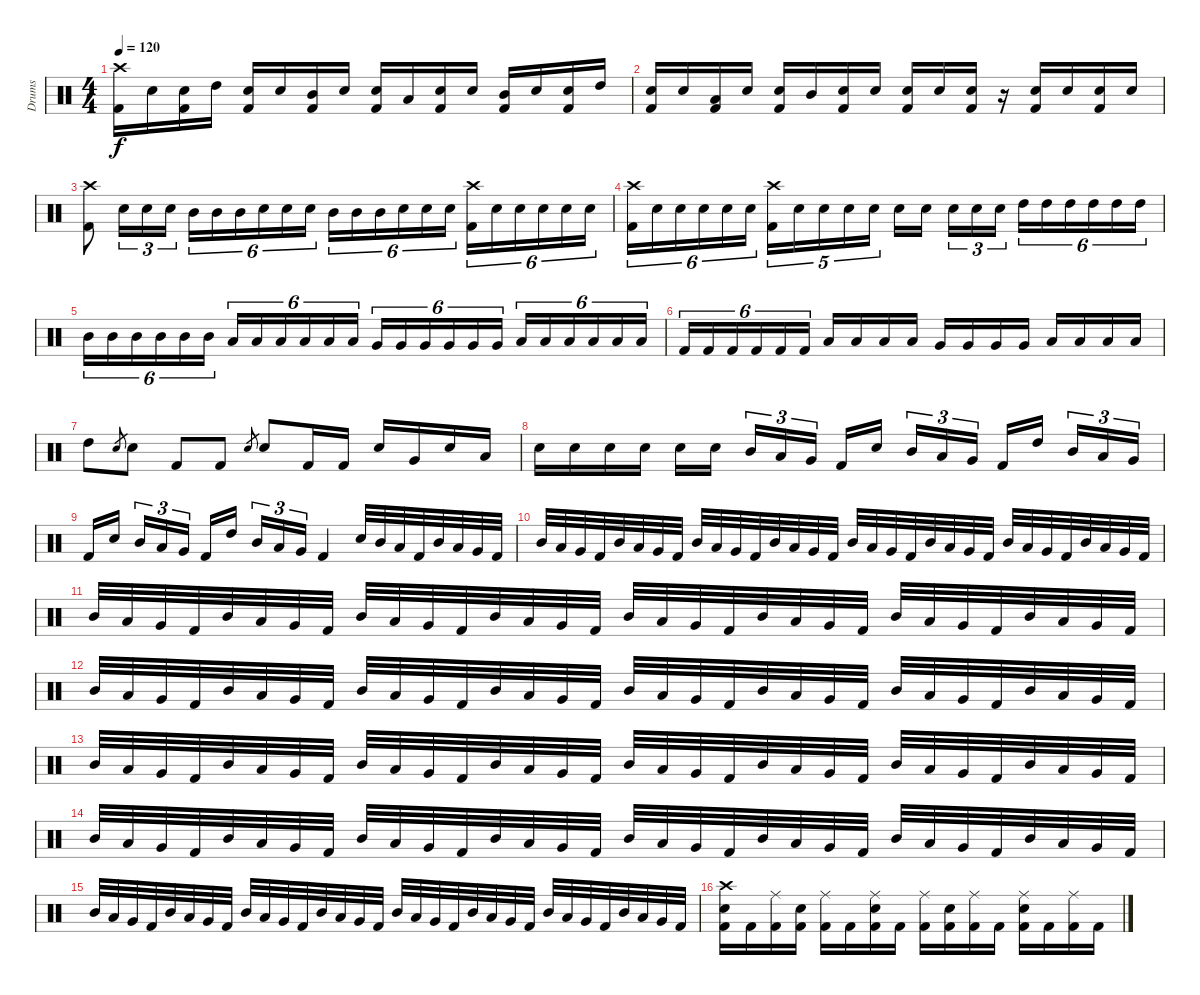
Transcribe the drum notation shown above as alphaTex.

\track ("Drums" "Drums") {instrument percussion}
\staff {score}
\articulation defaults
\ts (4 4)
\tempo 120
\clef neutral
\ks c
("Crash high (hit)" "Kick (hit) 2").16{dy f} "Electric Snare (hit)".16 ("Electric Snare (hit)" "Kick (hit) 2").16 "High Tom (hit)".16 ("Electric Snare (hit)" "Kick (hit) 2").16 "Electric Snare (hit)".16 ("Mid Tom (hit)" "Kick (hit) 2").16 "Electric Snare (hit)".16 ("Electric Snare (hit)" "Kick (hit) 2").16 "Low Tom (hit)".16 ("Electric Snare (hit)" "Kick (hit) 2").16 "Electric Snare (hit)".16 ("Mid Tom (hit)" "Kick (hit) 2").16 "Electric Snare (hit)".16 ("Electric Snare (hit)" "Kick (hit) 2").16 "High Tom (hit)".16 |
("Electric Snare (hit)" "Kick (hit) 2").16 "Electric Snare (hit)".16 ("Low Tom (hit)" "Kick (hit) 2").16 "Electric Snare (hit)".16 ("Electric Snare (hit)" "Kick (hit) 2").16 "Mid Tom (hit)".16 ("Electric Snare (hit)" "Kick (hit) 2").16 "Electric Snare (hit)".16 ("Electric Snare (hit)" "Kick (hit) 2").16 "Electric Snare (hit)".16 ("Electric Snare (hit)" "Kick (hit) 2").16 r.16 ("Electric Snare (hit)" "Kick (hit) 2").16 "Electric Snare (hit)".16 ("Electric Snare (hit)" "Kick (hit) 2").16 "Electric Snare (hit)".16 |
("Crash high (hit)" "Kick (hit) 2").8 "Electric Snare (hit)".16{tu (3 2)} "Electric Snare (hit)".16{tu (3 2)} "Electric Snare (hit)".16{tu (3 2)} "Mid Tom (hit)".16{tu (6 4)} "Mid Tom (hit)".16{tu (6 4)} "Mid Tom (hit)".16{tu (6 4)} "Electric Snare (hit)".16{tu (6 4)} "Electric Snare (hit)".16{tu (6 4)} "Electric Snare (hit)".16{tu (6 4)} "Mid Tom (hit)".16{tu (6 4)} "Mid Tom (hit)".16{tu (6 4)} "Mid Tom (hit)".16{tu (6 4)} "Electric Snare (hit)".16{tu (6 4)} "Electric Snare (hit)".16{tu (6 4)} "Electric Snare (hit)".16{tu (6 4)} ("Crash high (hit)" "Kick (hit) 2").16{tu (6 4)} "Electric Snare (hit)".16{tu (6 4)} "Electric Snare (hit)".16{tu (6 4)} "Electric Snare (hit)".16{tu (6 4)} "Electric Snare (hit)".16{tu (6 4)} "Electric Snare (hit)".16{tu (6 4)} |
("Crash high (hit)" "Kick (hit) 2").16{tu (6 4)} "Electric Snare (hit)".16{tu (6 4)} "Electric Snare (hit)".16{tu (6 4)} "Electric Snare (hit)".16{tu (6 4)} "Electric Snare (hit)".16{tu (6 4)} "Electric Snare (hit)".16{tu (6 4)} ("Crash high (hit)" "Kick (hit) 2").16{tu (5 4)} "Electric Snare (hit)".16{tu (5 4)} "Electric Snare (hit)".16{tu (5 4)} "Electric Snare (hit)".16{tu (5 4)} "Electric Snare (hit)".16{tu (5 4)} "Electric Snare (hit)".16 "Electric Snare (hit)".16 "Electric Snare (hit)".16{tu (3 2)} "Electric Snare (hit)".16{tu (3 2)} "Electric Snare (hit)".16{tu (3 2)} "High Tom (hit)".16{tu (6 4)} "High Tom (hit)".16{tu (6 4)} "High Tom (hit)".16{tu (6 4)} "High Tom (hit)".16{tu (6 4)} "High Tom (hit)".16{tu (6 4)} "High Tom (hit)".16{tu (6 4)} |
"Mid Tom (hit)".16{tu (6 4)} "Mid Tom (hit)".16{tu (6 4)} "Mid Tom (hit)".16{tu (6 4)} "Mid Tom (hit)".16{tu (6 4)} "Mid Tom (hit)".16{tu (6 4)} "Mid Tom (hit)".16{tu (6 4)} "Low Tom (hit)".16{tu (6 4)} "Low Tom (hit)".16{tu (6 4)} "Low Tom (hit)".16{tu (6 4)} "Low Tom (hit)".16{tu (6 4)} "Low Tom (hit)".16{tu (6 4)} "Low Tom (hit)".16{tu (6 4)} "Very Low Tom (hit)".16{tu (6 4)} "Very Low Tom (hit)".16{tu (6 4)} "Very Low Tom (hit)".16{tu (6 4)} "Very Low Tom (hit)".16{tu (6 4)} "Very Low Tom (hit)".16{tu (6 4)} "Very Low Tom (hit)".16{tu (6 4)} "Low Floor Tom (hit)".16{tu (6 4)} "Low Floor Tom (hit)".16{tu (6 4)} "Low Floor Tom (hit)".16{tu (6 4)} "Low Floor Tom (hit)".16{tu (6 4)} "Low Floor Tom (hit)".16{tu (6 4)} "Low Floor Tom (hit)".16{tu (6 4)} |
"Kick (hit) 2".16{tu (6 4)} "Kick (hit) 2".16{tu (6 4)} "Kick (hit) 2".16{tu (6 4)} "Kick (hit) 2".16{tu (6 4)} "Kick (hit) 2".16{tu (6 4)} "Kick (hit) 2".16{tu (6 4)} "Low Floor Tom (hit)".16 "Low Floor Tom (hit)".16 "Low Floor Tom (hit)".16 "Low Floor Tom (hit)".16 "Very Low Tom (hit)".16 "Very Low Tom (hit)".16 "Very Low Tom (hit)".16 "Very Low Tom (hit)".16 "Low Tom (hit)".16 "Low Tom (hit)".16 "Low Tom (hit)".16 "Low Tom (hit)".16 |
"High Tom (hit)".8 "Electric Snare (hit)".8{gr} "Electric Snare (hit)".8 "Kick (hit) 2".8 "Kick (hit) 2".8 "Electric Snare (hit)".8{gr} "Electric Snare (hit)".8 "Kick (hit) 2".16 "Kick (hit) 2".16 "Electric Snare (hit)".16 "Very Low Tom (hit)".16 "Electric Snare (hit)".16 "Low Tom (hit)".16 |
"Electric Snare (hit)".16 "Electric Snare (hit)".16 "Electric Snare (hit)".16 "Electric Snare (hit)".16 "Electric Snare (hit)".16 "Electric Snare (hit)".16 "Mid Tom (hit)".16{tu (3 2)} "Low Tom (hit)".16{tu (3 2)} "Very Low Tom (hit)".16{tu (3 2)} "Kick (hit) 2".16 "Electric Snare (hit)".16 "Mid Tom (hit)".16{tu (3 2)} "Low Tom (hit)".16{tu (3 2)} "Very Low Tom (hit)".16{tu (3 2)} "Kick (hit) 2".16 "High Tom (hit)".16 "Mid Tom (hit)".16{tu (3 2)} "Low Tom (hit)".16{tu (3 2)} "Very Low Tom (hit)".16{tu (3 2)} |
"Kick (hit) 2".16 "Electric Snare (hit)".16 "Mid Tom (hit)".16{tu (3 2)} "Low Tom (hit)".16{tu (3 2)} "Very Low Tom (hit)".16{tu (3 2)} "Kick (hit) 2".16 "High Tom (hit)".16 "Mid Tom (hit)".16{tu (3 2)} "Low Tom (hit)".16{tu (3 2)} "Very Low Tom (hit)".16{tu (3 2)} "Kick (hit) 2".4 "Electric Snare (hit)".32 "Mid Tom (hit)".32 "Low Tom (hit)".32 "Kick (hit) 2".32 "Mid Tom (hit)".32 "Low Tom (hit)".32 "Very Low Tom (hit)".32 "Kick (hit) 2".32 |
"Mid Tom (hit)".32 "Low Tom (hit)".32 "Very Low Tom (hit)".32 "Kick (hit) 2".32 "Mid Tom (hit)".32 "Low Tom (hit)".32 "Very Low Tom (hit)".32 "Kick (hit) 2".32 "Mid Tom (hit)".32 "Low Tom (hit)".32 "Very Low Tom (hit)".32 "Kick (hit) 2".32 "Mid Tom (hit)".32 "Low Tom (hit)".32 "Very Low Tom (hit)".32 "Kick (hit) 2".32 "Mid Tom (hit)".32 "Low Tom (hit)".32 "Very Low Tom (hit)".32 "Kick (hit) 2".32 "Mid Tom (hit)".32 "Low Tom (hit)".32 "Very Low Tom (hit)".32 "Kick (hit) 2".32 "Mid Tom (hit)".32 "Low Tom (hit)".32 "Very Low Tom (hit)".32 "Kick (hit) 2".32 "Mid Tom (hit)".32 "Low Tom (hit)".32 "Very Low Tom (hit)".32 "Kick (hit) 2".32 |
"Mid Tom (hit)".32 "Low Tom (hit)".32 "Very Low Tom (hit)".32 "Kick (hit) 2".32 "Mid Tom (hit)".32 "Low Tom (hit)".32 "Very Low Tom (hit)".32 "Kick (hit) 2".32 "Mid Tom (hit)".32 "Low Tom (hit)".32 "Very Low Tom (hit)".32 "Kick (hit) 2".32 "Mid Tom (hit)".32 "Low Tom (hit)".32 "Very Low Tom (hit)".32 "Kick (hit) 2".32 "Mid Tom (hit)".32 "Low Tom (hit)".32 "Very Low Tom (hit)".32 "Kick (hit) 2".32 "Mid Tom (hit)".32 "Low Tom (hit)".32 "Very Low Tom (hit)".32 "Kick (hit) 2".32 "Mid Tom (hit)".32 "Low Tom (hit)".32 "Very Low Tom (hit)".32 "Kick (hit) 2".32 "Mid Tom (hit)".32 "Low Tom (hit)".32 "Very Low Tom (hit)".32 "Kick (hit) 2".32 |
"Mid Tom (hit)".32 "Low Tom (hit)".32 "Very Low Tom (hit)".32 "Kick (hit) 2".32 "Mid Tom (hit)".32 "Low Tom (hit)".32 "Very Low Tom (hit)".32 "Kick (hit) 2".32 "Mid Tom (hit)".32 "Low Tom (hit)".32 "Very Low Tom (hit)".32 "Kick (hit) 2".32 "Mid Tom (hit)".32 "Low Tom (hit)".32 "Very Low Tom (hit)".32 "Kick (hit) 2".32 "Mid Tom (hit)".32 "Low Tom (hit)".32 "Very Low Tom (hit)".32 "Kick (hit) 2".32 "Mid Tom (hit)".32 "Low Tom (hit)".32 "Very Low Tom (hit)".32 "Kick (hit) 2".32 "Mid Tom (hit)".32 "Low Tom (hit)".32 "Very Low Tom (hit)".32 "Kick (hit) 2".32 "Mid Tom (hit)".32 "Low Tom (hit)".32 "Very Low Tom (hit)".32 "Kick (hit) 2".32 |
"Mid Tom (hit)".32 "Low Tom (hit)".32 "Very Low Tom (hit)".32 "Kick (hit) 2".32 "Mid Tom (hit)".32 "Low Tom (hit)".32 "Very Low Tom (hit)".32 "Kick (hit) 2".32 "Mid Tom (hit)".32 "Low Tom (hit)".32 "Very Low Tom (hit)".32 "Kick (hit) 2".32 "Mid Tom (hit)".32 "Low Tom (hit)".32 "Very Low Tom (hit)".32 "Kick (hit) 2".32 "Mid Tom (hit)".32 "Low Tom (hit)".32 "Very Low Tom (hit)".32 "Kick (hit) 2".32 "Mid Tom (hit)".32 "Low Tom (hit)".32 "Very Low Tom (hit)".32 "Kick (hit) 2".32 "Mid Tom (hit)".32 "Low Tom (hit)".32 "Very Low Tom (hit)".32 "Kick (hit) 2".32 "Mid Tom (hit)".32 "Low Tom (hit)".32 "Very Low Tom (hit)".32 "Kick (hit) 2".32 |
"Mid Tom (hit)".32 "Low Tom (hit)".32 "Very Low Tom (hit)".32 "Kick (hit) 2".32 "Mid Tom (hit)".32 "Low Tom (hit)".32 "Very Low Tom (hit)".32 "Kick (hit) 2".32 "Mid Tom (hit)".32 "Low Tom (hit)".32 "Very Low Tom (hit)".32 "Kick (hit) 2".32 "Mid Tom (hit)".32 "Low Tom (hit)".32 "Very Low Tom (hit)".32 "Kick (hit) 2".32 "Mid Tom (hit)".32 "Low Tom (hit)".32 "Very Low Tom (hit)".32 "Kick (hit) 2".32 "Mid Tom (hit)".32 "Low Tom (hit)".32 "Very Low Tom (hit)".32 "Kick (hit) 2".32 "Mid Tom (hit)".32 "Low Tom (hit)".32 "Very Low Tom (hit)".32 "Kick (hit) 2".32 "Mid Tom (hit)".32 "Low Tom (hit)".32 "Very Low Tom (hit)".32 "Kick (hit) 2".32 |
"Mid Tom (hit)".32 "Low Tom (hit)".32 "Very Low Tom (hit)".32 "Kick (hit) 2".32 "Mid Tom (hit)".32 "Low Tom (hit)".32 "Very Low Tom (hit)".32 "Kick (hit) 2".32 "Mid Tom (hit)".32 "Low Tom (hit)".32 "Very Low Tom (hit)".32 "Kick (hit) 2".32 "Mid Tom (hit)".32 "Low Tom (hit)".32 "Very Low Tom (hit)".32 "Kick (hit) 2".32 "Mid Tom (hit)".32 "Low Tom (hit)".32 "Very Low Tom (hit)".32 "Kick (hit) 2".32 "Mid Tom (hit)".32 "Low Tom (hit)".32 "Very Low Tom (hit)".32 "Kick (hit) 2".32 "Mid Tom (hit)".32 "Low Tom (hit)".32 "Very Low Tom (hit)".32 "Kick (hit) 2".32 "Mid Tom (hit)".32 "Low Tom (hit)".32 "Very Low Tom (hit)".32 "Kick (hit) 2".32 |
("Crash high (hit)" "Electric Snare (hit)" "Kick (hit) 2").16 "Kick (hit) 2".16 ("Ride (middle)" "Kick (hit) 2").16 ("Electric Snare (hit)" "Kick (hit) 2").16 ("Ride (middle)" "Kick (hit) 2").16 "Kick (hit) 2".16 ("Ride (middle)" "Electric Snare (hit)" "Kick (hit) 2").16 "Kick (hit) 2".16 ("Ride (middle)" "Kick (hit) 2").16 ("Electric Snare (hit)" "Kick (hit) 2").16 ("Ride (middle)" "Kick (hit) 2").16 "Kick (hit) 2".16 ("Ride (middle)" "Electric Snare (hit)" "Kick (hit) 2").16 "Kick (hit) 2".16 ("Ride (middle)" "Kick (hit) 2").16 "Kick (hit) 2".16
